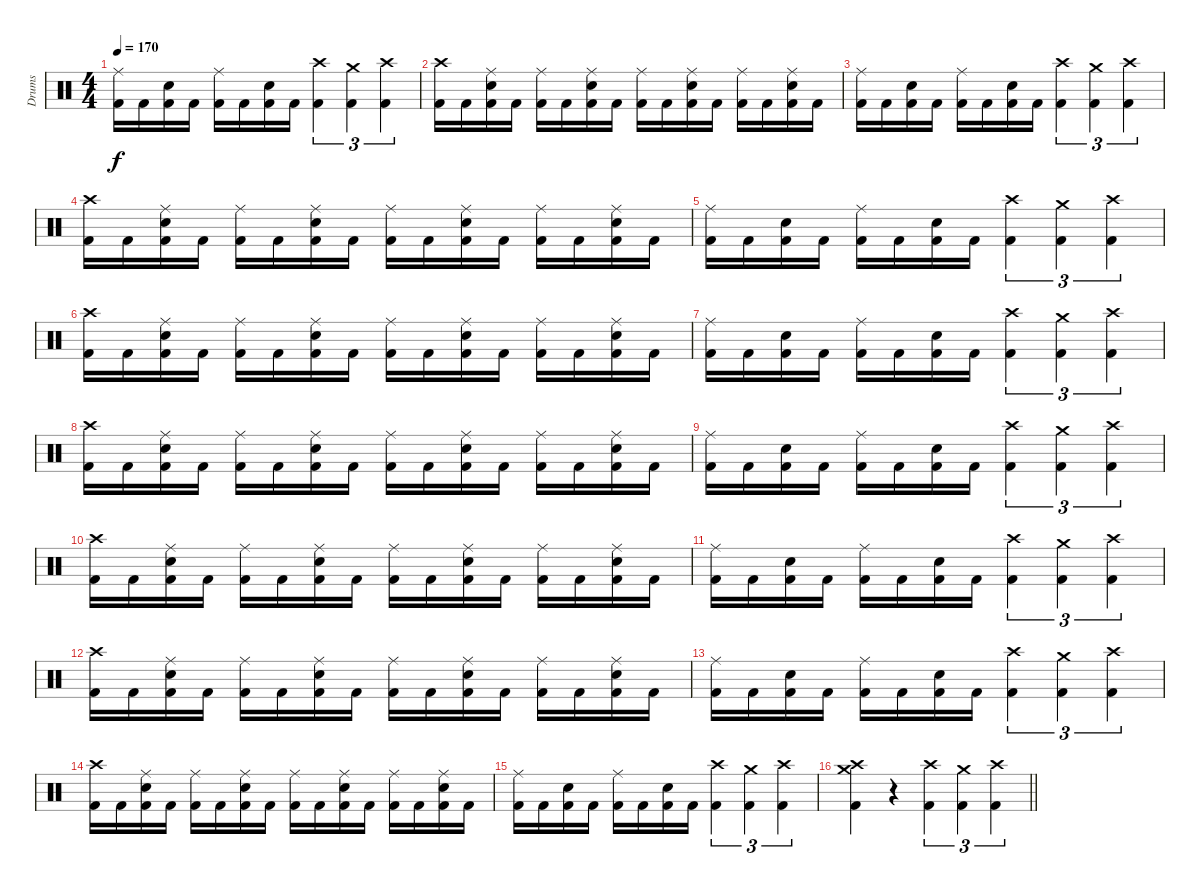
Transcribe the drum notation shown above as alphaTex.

\track ("Drums" "Drums") {instrument percussion}
\staff {score}
\articulation defaults
\ts (4 4)
\tempo 170
\clef neutral
\ks c
("Ride (middle)" "Kick (hit) 2").16{dy f} "Kick (hit) 2".16 ("Snare (hit) 2" "Kick (hit) 2").16 "Kick (hit) 2".16 ("Ride (middle)" "Kick (hit) 2").16 "Kick (hit) 2".16 ("Snare (hit) 2" "Kick (hit) 2").16 "Kick (hit) 2".16 ("Crash high (hit)" "Kick (hit) 2").4{tu (3 2)} ("Crash medium (hit)" "Kick (hit) 2").4{tu (3 2)} ("Crash high (hit)" "Kick (hit) 2").4{tu (3 2)} |
("Crash high (hit)" "Kick (hit) 2").16 "Kick (hit) 2".16 ("Ride (middle)" "Snare (hit) 2" "Kick (hit) 2").16 "Kick (hit) 2".16 ("Ride (middle)" "Kick (hit) 2").16 "Kick (hit) 2".16 ("Ride (middle)" "Snare (hit) 2" "Kick (hit) 2").16 "Kick (hit) 2".16 ("Ride (middle)" "Kick (hit) 2").16 "Kick (hit) 2".16 ("Ride (middle)" "Snare (hit) 2" "Kick (hit) 2").16 "Kick (hit) 2".16 ("Ride (middle)" "Kick (hit) 2").16 "Kick (hit) 2".16 ("Ride (middle)" "Snare (hit) 2" "Kick (hit) 2").16 "Kick (hit) 2".16 |
("Ride (middle)" "Kick (hit) 2").16 "Kick (hit) 2".16 ("Snare (hit) 2" "Kick (hit) 2").16 "Kick (hit) 2".16 ("Ride (middle)" "Kick (hit) 2").16 "Kick (hit) 2".16 ("Snare (hit) 2" "Kick (hit) 2").16 "Kick (hit) 2".16 ("Crash high (hit)" "Kick (hit) 2").4{tu (3 2)} ("Crash medium (hit)" "Kick (hit) 2").4{tu (3 2)} ("Crash high (hit)" "Kick (hit) 2").4{tu (3 2)} |
("Crash high (hit)" "Kick (hit) 2").16 "Kick (hit) 2".16 ("Ride (middle)" "Snare (hit) 2" "Kick (hit) 2").16 "Kick (hit) 2".16 ("Ride (middle)" "Kick (hit) 2").16 "Kick (hit) 2".16 ("Ride (middle)" "Snare (hit) 2" "Kick (hit) 2").16 "Kick (hit) 2".16 ("Ride (middle)" "Kick (hit) 2").16 "Kick (hit) 2".16 ("Ride (middle)" "Snare (hit) 2" "Kick (hit) 2").16 "Kick (hit) 2".16 ("Ride (middle)" "Kick (hit) 2").16 "Kick (hit) 2".16 ("Ride (middle)" "Snare (hit) 2" "Kick (hit) 2").16 "Kick (hit) 2".16 |
("Ride (middle)" "Kick (hit) 2").16 "Kick (hit) 2".16 ("Snare (hit) 2" "Kick (hit) 2").16 "Kick (hit) 2".16 ("Ride (middle)" "Kick (hit) 2").16 "Kick (hit) 2".16 ("Snare (hit) 2" "Kick (hit) 2").16 "Kick (hit) 2".16 ("Crash high (hit)" "Kick (hit) 2").4{tu (3 2)} ("Crash medium (hit)" "Kick (hit) 2").4{tu (3 2)} ("Crash high (hit)" "Kick (hit) 2").4{tu (3 2)} |
("Crash high (hit)" "Kick (hit) 2").16 "Kick (hit) 2".16 ("Ride (middle)" "Snare (hit) 2" "Kick (hit) 2").16 "Kick (hit) 2".16 ("Ride (middle)" "Kick (hit) 2").16 "Kick (hit) 2".16 ("Ride (middle)" "Snare (hit) 2" "Kick (hit) 2").16 "Kick (hit) 2".16 ("Ride (middle)" "Kick (hit) 2").16 "Kick (hit) 2".16 ("Ride (middle)" "Snare (hit) 2" "Kick (hit) 2").16 "Kick (hit) 2".16 ("Ride (middle)" "Kick (hit) 2").16 "Kick (hit) 2".16 ("Ride (middle)" "Snare (hit) 2" "Kick (hit) 2").16 "Kick (hit) 2".16 |
("Ride (middle)" "Kick (hit) 2").16 "Kick (hit) 2".16 ("Snare (hit) 2" "Kick (hit) 2").16 "Kick (hit) 2".16 ("Ride (middle)" "Kick (hit) 2").16 "Kick (hit) 2".16 ("Snare (hit) 2" "Kick (hit) 2").16 "Kick (hit) 2".16 ("Crash high (hit)" "Kick (hit) 2").4{tu (3 2)} ("Crash medium (hit)" "Kick (hit) 2").4{tu (3 2)} ("Crash high (hit)" "Kick (hit) 2").4{tu (3 2)} |
("Crash high (hit)" "Kick (hit) 2").16 "Kick (hit) 2".16 ("Ride (middle)" "Snare (hit) 2" "Kick (hit) 2").16 "Kick (hit) 2".16 ("Ride (middle)" "Kick (hit) 2").16 "Kick (hit) 2".16 ("Ride (middle)" "Snare (hit) 2" "Kick (hit) 2").16 "Kick (hit) 2".16 ("Ride (middle)" "Kick (hit) 2").16 "Kick (hit) 2".16 ("Ride (middle)" "Snare (hit) 2" "Kick (hit) 2").16 "Kick (hit) 2".16 ("Ride (middle)" "Kick (hit) 2").16 "Kick (hit) 2".16 ("Ride (middle)" "Snare (hit) 2" "Kick (hit) 2").16 "Kick (hit) 2".16 |
("Ride (middle)" "Kick (hit) 2").16 "Kick (hit) 2".16 ("Snare (hit) 2" "Kick (hit) 2").16 "Kick (hit) 2".16 ("Ride (middle)" "Kick (hit) 2").16 "Kick (hit) 2".16 ("Snare (hit) 2" "Kick (hit) 2").16 "Kick (hit) 2".16 ("Crash high (hit)" "Kick (hit) 2").4{tu (3 2)} ("Crash medium (hit)" "Kick (hit) 2").4{tu (3 2)} ("Crash high (hit)" "Kick (hit) 2").4{tu (3 2)} |
("Crash high (hit)" "Kick (hit) 2").16 "Kick (hit) 2".16 ("Ride (middle)" "Snare (hit) 2" "Kick (hit) 2").16 "Kick (hit) 2".16 ("Ride (middle)" "Kick (hit) 2").16 "Kick (hit) 2".16 ("Ride (middle)" "Snare (hit) 2" "Kick (hit) 2").16 "Kick (hit) 2".16 ("Ride (middle)" "Kick (hit) 2").16 "Kick (hit) 2".16 ("Ride (middle)" "Snare (hit) 2" "Kick (hit) 2").16 "Kick (hit) 2".16 ("Ride (middle)" "Kick (hit) 2").16 "Kick (hit) 2".16 ("Ride (middle)" "Snare (hit) 2" "Kick (hit) 2").16 "Kick (hit) 2".16 |
("Ride (middle)" "Kick (hit) 2").16 "Kick (hit) 2".16 ("Snare (hit) 2" "Kick (hit) 2").16 "Kick (hit) 2".16 ("Ride (middle)" "Kick (hit) 2").16 "Kick (hit) 2".16 ("Snare (hit) 2" "Kick (hit) 2").16 "Kick (hit) 2".16 ("Crash high (hit)" "Kick (hit) 2").4{tu (3 2)} ("Crash medium (hit)" "Kick (hit) 2").4{tu (3 2)} ("Crash high (hit)" "Kick (hit) 2").4{tu (3 2)} |
("Crash high (hit)" "Kick (hit) 2").16 "Kick (hit) 2".16 ("Ride (middle)" "Snare (hit) 2" "Kick (hit) 2").16 "Kick (hit) 2".16 ("Ride (middle)" "Kick (hit) 2").16 "Kick (hit) 2".16 ("Ride (middle)" "Snare (hit) 2" "Kick (hit) 2").16 "Kick (hit) 2".16 ("Ride (middle)" "Kick (hit) 2").16 "Kick (hit) 2".16 ("Ride (middle)" "Snare (hit) 2" "Kick (hit) 2").16 "Kick (hit) 2".16 ("Ride (middle)" "Kick (hit) 2").16 "Kick (hit) 2".16 ("Ride (middle)" "Snare (hit) 2" "Kick (hit) 2").16 "Kick (hit) 2".16 |
("Ride (middle)" "Kick (hit) 2").16 "Kick (hit) 2".16 ("Snare (hit) 2" "Kick (hit) 2").16 "Kick (hit) 2".16 ("Ride (middle)" "Kick (hit) 2").16 "Kick (hit) 2".16 ("Snare (hit) 2" "Kick (hit) 2").16 "Kick (hit) 2".16 ("Crash high (hit)" "Kick (hit) 2").4{tu (3 2)} ("Crash medium (hit)" "Kick (hit) 2").4{tu (3 2)} ("Crash high (hit)" "Kick (hit) 2").4{tu (3 2)} |
("Crash high (hit)" "Kick (hit) 2").16 "Kick (hit) 2".16 ("Ride (middle)" "Snare (hit) 2" "Kick (hit) 2").16 "Kick (hit) 2".16 ("Ride (middle)" "Kick (hit) 2").16 "Kick (hit) 2".16 ("Ride (middle)" "Snare (hit) 2" "Kick (hit) 2").16 "Kick (hit) 2".16 ("Ride (middle)" "Kick (hit) 2").16 "Kick (hit) 2".16 ("Ride (middle)" "Snare (hit) 2" "Kick (hit) 2").16 "Kick (hit) 2".16 ("Ride (middle)" "Kick (hit) 2").16 "Kick (hit) 2".16 ("Ride (middle)" "Snare (hit) 2" "Kick (hit) 2").16 "Kick (hit) 2".16 |
("Ride (middle)" "Kick (hit) 2").16 "Kick (hit) 2".16 ("Snare (hit) 2" "Kick (hit) 2").16 "Kick (hit) 2".16 ("Ride (middle)" "Kick (hit) 2").16 "Kick (hit) 2".16 ("Snare (hit) 2" "Kick (hit) 2").16 "Kick (hit) 2".16 ("Crash high (hit)" "Kick (hit) 2").4{tu (3 2)} ("Crash medium (hit)" "Kick (hit) 2").4{tu (3 2)} ("Crash high (hit)" "Kick (hit) 2").4{tu (3 2)} |
\barLineRight lightlight
("Crash medium (hit)" "Crash high (hit)" "Kick (hit) 2").4 r.4 ("Crash high (hit)" "Kick (hit) 2").4{tu (3 2)} ("Crash medium (hit)" "Kick (hit) 2").4{tu (3 2)} ("Crash high (hit)" "Kick (hit) 2").4{tu (3 2)}
